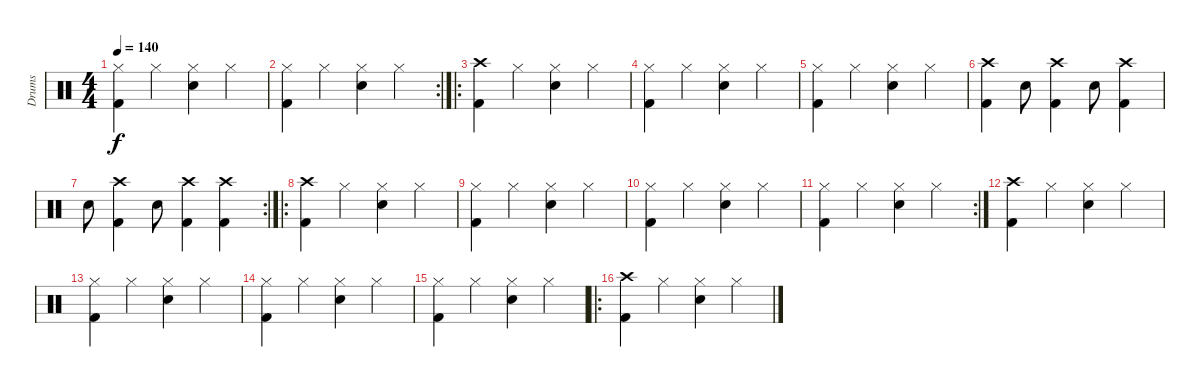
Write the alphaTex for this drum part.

\track ("Drums" "Drums") {instrument percussion}
\staff {score}
\articulation defaults
\ts (4 4)
\tempo 140
\clef neutral
\ks c
("Hi-Hat (closed)" "Kick (hit) 2").4{dy f} "Hi-Hat (closed)".4 ("Hi-Hat (closed)" "Snare (hit) 2").4 "Hi-Hat (closed)".4 |
\rc 2
("Hi-Hat (closed)" "Kick (hit) 2").4 "Hi-Hat (closed)".4 ("Hi-Hat (closed)" "Snare (hit) 2").4 "Hi-Hat (closed)".4 |
\ro
("Crash high (hit)" "Kick (hit) 2").4 "Hi-Hat (closed)".4 ("Hi-Hat (closed)" "Snare (hit) 2").4 "Hi-Hat (closed)".4 |
("Hi-Hat (closed)" "Kick (hit) 2").4 "Hi-Hat (closed)".4 ("Hi-Hat (closed)" "Snare (hit) 2").4 "Hi-Hat (closed)".4 |
("Hi-Hat (closed)" "Kick (hit) 2").4 "Hi-Hat (closed)".4 ("Hi-Hat (closed)" "Snare (hit) 2").4 "Hi-Hat (closed)".4 |
("Crash high (hit)" "Kick (hit) 2").4 "Snare (hit) 2".8 ("Crash high (hit)" "Kick (hit) 2").4 "Snare (hit) 2".8 ("Crash high (hit)" "Kick (hit) 2").4 |
\rc 2 "Snare (hit) 2".8
("Crash high (hit)" "Kick (hit) 2").4 "Snare (hit) 2".8 ("Crash high (hit)" "Kick (hit) 2").4 ("Crash high (hit)" "Kick (hit) 2").4 |
\ro
("Crash high (hit)" "Kick (hit) 2").4 "Hi-Hat (closed)".4 ("Hi-Hat (closed)" "Snare (hit) 2").4 "Hi-Hat (closed)".4 |
("Hi-Hat (closed)" "Kick (hit) 2").4 "Hi-Hat (closed)".4 ("Hi-Hat (closed)" "Snare (hit) 2").4 "Hi-Hat (closed)".4 |
("Hi-Hat (closed)" "Kick (hit) 2").4 "Hi-Hat (closed)".4 ("Hi-Hat (closed)" "Snare (hit) 2").4 "Hi-Hat (closed)".4 |
\rc 2
("Hi-Hat (closed)" "Kick (hit) 2").4 "Hi-Hat (closed)".4 ("Hi-Hat (closed)" "Snare (hit) 2").4 "Hi-Hat (closed)".4 |
("Crash high (hit)" "Kick (hit) 2").4 "Hi-Hat (closed)".4 ("Hi-Hat (closed)" "Snare (hit) 2").4 "Hi-Hat (closed)".4 |
("Hi-Hat (closed)" "Kick (hit) 2").4 "Hi-Hat (closed)".4 ("Hi-Hat (closed)" "Snare (hit) 2").4 "Hi-Hat (closed)".4 |
("Hi-Hat (closed)" "Kick (hit) 2").4 "Hi-Hat (closed)".4 ("Hi-Hat (closed)" "Snare (hit) 2").4 "Hi-Hat (closed)".4 |
("Hi-Hat (closed)" "Kick (hit) 2").4 "Hi-Hat (closed)".4 ("Hi-Hat (closed)" "Snare (hit) 2").4 "Hi-Hat (closed)".4 |
\ro
("Crash high (hit)" "Kick (hit) 2").4 "Hi-Hat (closed)".4 ("Hi-Hat (closed)" "Snare (hit) 2").4 "Hi-Hat (closed)".4
